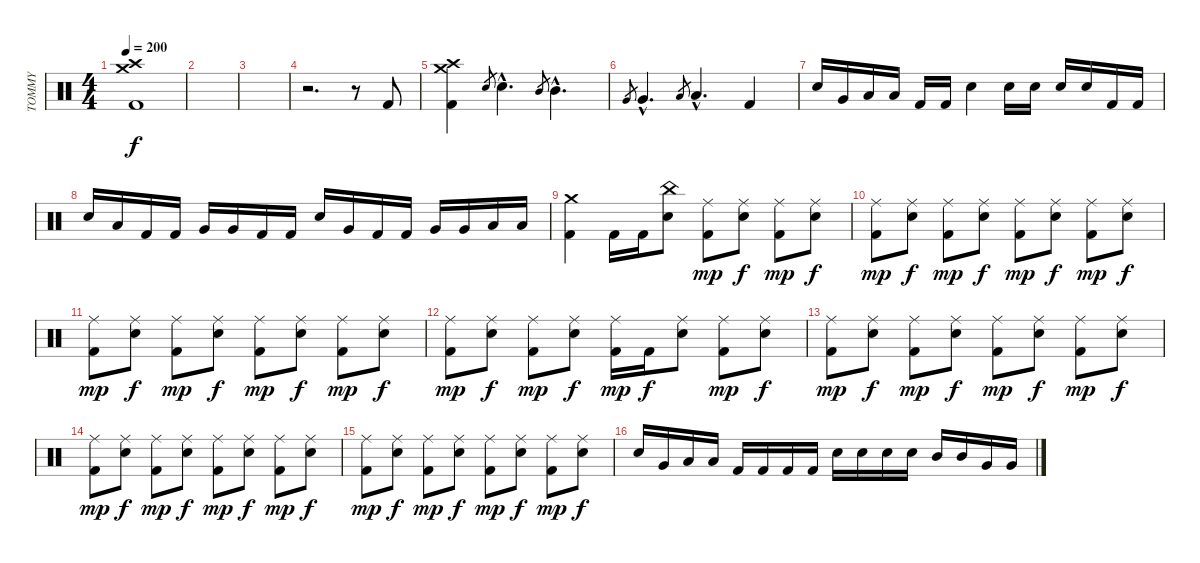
\track ("TOMMY" "TOMMY") {instrument percussion}
\staff {score}
\articulation defaults
\ts (4 4)
\tempo 200
\clef neutral
\ks c
("Kick (hit) 2" "Crash high (hit)" "Crash medium (hit)").1{dy f} |
|
|
r.2{d} r.8 "Kick (hit) 2".8 |
("Kick (hit) 2" "Crash high (hit)" "Crash medium (hit)").4 "Snare (hit) 2".8{gr} "Snare (hit) 2"{hac}.4{d} "Mid Tom (hit)".8{gr} "Mid Tom (hit)"{hac}.4{d} |
"Very Low Tom (hit)".8{gr} "Very Low Tom (hit)"{hac}.4{d} "Low Floor Tom (hit)".8{gr} "Low Floor Tom (hit)"{hac}.4{d} "Kick (hit) 2".4 |
"Snare (hit) 2".16 "Very Low Tom (hit)".16 "Low Floor Tom (hit)".16 "Low Floor Tom (hit)".16 "Kick (hit) 2".16 "Kick (hit) 2".16 "Snare (hit) 2".4 "Snare (hit) 2".16 "Snare (hit) 2".16 "Snare (hit) 2".16 "Snare (hit) 2".16 "Kick (hit) 2".16 "Kick (hit) 2".16 |
"Snare (hit) 2".16 "Low Floor Tom (hit)".16 "Kick (hit) 2".16 "Kick (hit) 2".16 "Very Low Tom (hit)".16 "Very Low Tom (hit)".16 "Kick (hit) 2".16 "Kick (hit) 2".16 "Snare (hit) 2".16 "Very Low Tom (hit)".16 "Kick (hit) 2".16 "Kick (hit) 2".16 "Very Low Tom (hit)".16 "Very Low Tom (hit)".16 "Low Floor Tom (hit)".16 "Low Floor Tom (hit)".16 |
("Kick (hit) 2" "Crash medium (hit)").4 "Kick (hit) 2".16 "Kick (hit) 2".16 ("Snare (hit) 2" "China (hit)").8 ("Kick (hit) 2" "Ride (middle)").8{dy mp} ("Snare (hit) 2" "Ride (middle)").8{dy f} ("Kick (hit) 2" "Ride (middle)").8{dy mp} ("Snare (hit) 2" "Ride (middle)").8{dy f} |
("Kick (hit) 2" "Ride (middle)").8{dy mp} ("Snare (hit) 2" "Ride (middle)").8{dy f} ("Kick (hit) 2" "Ride (middle)").8{dy mp} ("Snare (hit) 2" "Ride (middle)").8{dy f} ("Kick (hit) 2" "Ride (middle)").8{dy mp} ("Snare (hit) 2" "Ride (middle)").8{dy f} ("Kick (hit) 2" "Ride (middle)").8{dy mp} ("Snare (hit) 2" "Ride (middle)").8{dy f} |
("Kick (hit) 2" "Ride (middle)").8{dy mp} ("Snare (hit) 2" "Ride (middle)").8{dy f} ("Kick (hit) 2" "Ride (middle)").8{dy mp} ("Snare (hit) 2" "Ride (middle)").8{dy f} ("Kick (hit) 2" "Ride (middle)").8{dy mp} ("Snare (hit) 2" "Ride (middle)").8{dy f} ("Kick (hit) 2" "Ride (middle)").8{dy mp} ("Snare (hit) 2" "Ride (middle)").8{dy f} |
("Kick (hit) 2" "Ride (middle)").8{dy mp} ("Snare (hit) 2" "Ride (middle)").8{dy f} ("Kick (hit) 2" "Ride (middle)").8{dy mp} ("Snare (hit) 2" "Ride (middle)").8{dy f} ("Kick (hit) 2" "Ride (middle)").16{dy mp} "Kick (hit) 2".16{dy f} ("Snare (hit) 2" "Ride (middle)").8 ("Kick (hit) 2" "Ride (middle)").8{dy mp} ("Snare (hit) 2" "Ride (middle)").8{dy f} |
("Kick (hit) 2" "Ride (middle)").8{dy mp} ("Snare (hit) 2" "Ride (middle)").8{dy f} ("Kick (hit) 2" "Ride (middle)").8{dy mp} ("Snare (hit) 2" "Ride (middle)").8{dy f} ("Kick (hit) 2" "Ride (middle)").8{dy mp} ("Snare (hit) 2" "Ride (middle)").8{dy f} ("Kick (hit) 2" "Ride (middle)").8{dy mp} ("Snare (hit) 2" "Ride (middle)").8{dy f} |
("Kick (hit) 2" "Ride (middle)").8{dy mp} ("Snare (hit) 2" "Ride (middle)").8{dy f} ("Kick (hit) 2" "Ride (middle)").8{dy mp} ("Snare (hit) 2" "Ride (middle)").8{dy f} ("Kick (hit) 2" "Ride (middle)").8{dy mp} ("Snare (hit) 2" "Ride (middle)").8{dy f} ("Kick (hit) 2" "Ride (middle)").8{dy mp} ("Snare (hit) 2" "Ride (middle)").8{dy f} |
("Kick (hit) 2" "Ride (middle)").8{dy mp} ("Snare (hit) 2" "Ride (middle)").8{dy f} ("Kick (hit) 2" "Ride (middle)").8{dy mp} ("Snare (hit) 2" "Ride (middle)").8{dy f} ("Kick (hit) 2" "Ride (middle)").8{dy mp} ("Snare (hit) 2" "Ride (middle)").8{dy f} ("Kick (hit) 2" "Ride (middle)").8{dy mp} ("Snare (hit) 2" "Ride (middle)").8{dy f} |
"Snare (hit) 2".16 "Very Low Tom (hit)".16 "Low Floor Tom (hit)".16 "Low Floor Tom (hit)".16 "Kick (hit) 2".16 "Kick (hit) 2".16 "Kick (hit) 2".16 "Kick (hit) 2".16 "Snare (hit) 2".16 "Snare (hit) 2".16 "Snare (hit) 2".16 "Snare (hit) 2".16 "Mid Tom (hit)".16 "Mid Tom (hit)".16 "Very Low Tom (hit)".16 "Very Low Tom (hit)".16
